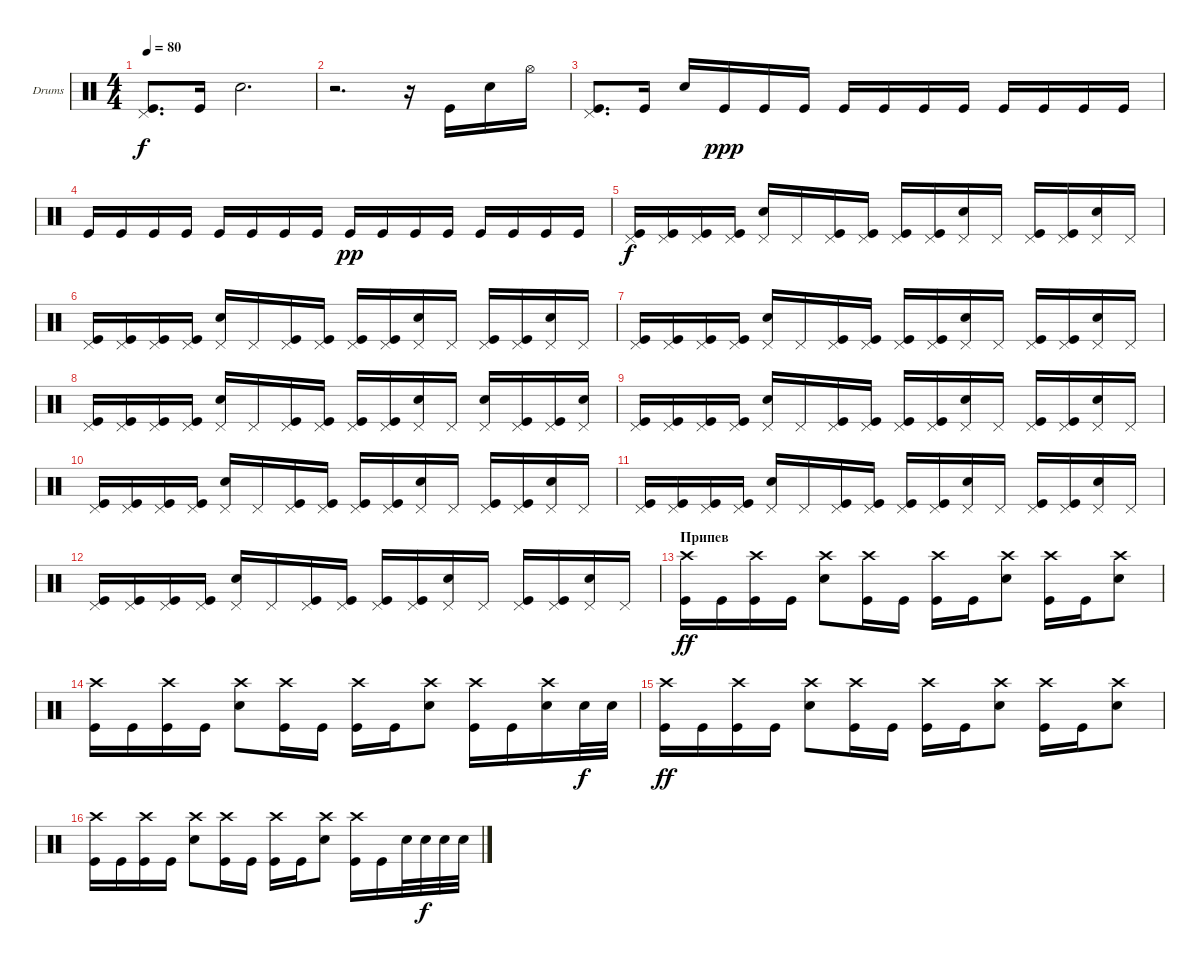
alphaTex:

\defaultSystemsLayout 4
\bracketExtendMode groupsimilarinstruments
\firstSystemTrackNameOrientation horizontal
\otherSystemsTrackNameOrientation horizontal
\track ("Drumkit" "Drums") {mute instrument percussion}
\staff {score}
\articulation defaults
\ts (4 4)
\tempo 80
\clef neutral
\ks c
("Pedal Hi-Hat (hit)" "Kick (hit)").8{d dy f} "Kick (hit)".16 "Snare (hit) 2".2{d} |
r.2{d} r.16 "Kick (hit)".16 "Snare (hit) 2".16 "Hi-Hat (open)".16 |
("Pedal Hi-Hat (hit)" "Kick (hit)").8{d} "Kick (hit)".16 "Snare (hit) 2".16 "Kick (hit)".16{dy ppp} "Kick (hit)".16 "Kick (hit)".16 "Kick (hit)".16 "Kick (hit)".16 "Kick (hit)".16 "Kick (hit)".16 "Kick (hit)".16 "Kick (hit)".16 "Kick (hit)".16 "Kick (hit)".16 |
"Kick (hit)".16 "Kick (hit)".16 "Kick (hit)".16 "Kick (hit)".16 "Kick (hit)".16 "Kick (hit)".16 "Kick (hit)".16 "Kick (hit)".16 "Kick (hit)".16{dy pp} "Kick (hit)".16 "Kick (hit)".16 "Kick (hit)".16 "Kick (hit)".16 "Kick (hit)".16 "Kick (hit)".16 "Kick (hit)".16 |
("Pedal Hi-Hat (hit)" "Kick (hit)").16{dy f} ("Pedal Hi-Hat (hit)" "Kick (hit)").16 ("Pedal Hi-Hat (hit)" "Kick (hit)").16 ("Pedal Hi-Hat (hit)" "Kick (hit)").16 ("Pedal Hi-Hat (hit)" "Snare (hit) 2").16 "Pedal Hi-Hat (hit)".16 ("Pedal Hi-Hat (hit)" "Kick (hit)").16 ("Pedal Hi-Hat (hit)" "Kick (hit)").16 ("Pedal Hi-Hat (hit)" "Kick (hit)").16 ("Pedal Hi-Hat (hit)" "Kick (hit)").16 ("Pedal Hi-Hat (hit)" "Snare (hit) 2").16 "Pedal Hi-Hat (hit)".16 ("Pedal Hi-Hat (hit)" "Kick (hit)").16 ("Pedal Hi-Hat (hit)" "Kick (hit)").16 ("Pedal Hi-Hat (hit)" "Snare (hit) 2").16 "Pedal Hi-Hat (hit)".16 |
("Pedal Hi-Hat (hit)" "Kick (hit)").16 ("Pedal Hi-Hat (hit)" "Kick (hit)").16 ("Pedal Hi-Hat (hit)" "Kick (hit)").16 ("Pedal Hi-Hat (hit)" "Kick (hit)").16 ("Pedal Hi-Hat (hit)" "Snare (hit) 2").16 "Pedal Hi-Hat (hit)".16 ("Pedal Hi-Hat (hit)" "Kick (hit)").16 ("Pedal Hi-Hat (hit)" "Kick (hit)").16 ("Pedal Hi-Hat (hit)" "Kick (hit)").16 ("Pedal Hi-Hat (hit)" "Kick (hit)").16 ("Pedal Hi-Hat (hit)" "Snare (hit) 2").16 "Pedal Hi-Hat (hit)".16 ("Pedal Hi-Hat (hit)" "Kick (hit)").16 ("Pedal Hi-Hat (hit)" "Kick (hit)").16 ("Pedal Hi-Hat (hit)" "Snare (hit) 2").16 "Pedal Hi-Hat (hit)".16 |
("Pedal Hi-Hat (hit)" "Kick (hit)").16 ("Pedal Hi-Hat (hit)" "Kick (hit)").16 ("Pedal Hi-Hat (hit)" "Kick (hit)").16 ("Pedal Hi-Hat (hit)" "Kick (hit)").16 ("Pedal Hi-Hat (hit)" "Snare (hit) 2").16 "Pedal Hi-Hat (hit)".16 ("Pedal Hi-Hat (hit)" "Kick (hit)").16 ("Pedal Hi-Hat (hit)" "Kick (hit)").16 ("Pedal Hi-Hat (hit)" "Kick (hit)").16 ("Pedal Hi-Hat (hit)" "Kick (hit)").16 ("Pedal Hi-Hat (hit)" "Snare (hit) 2").16 "Pedal Hi-Hat (hit)".16 ("Pedal Hi-Hat (hit)" "Kick (hit)").16 ("Pedal Hi-Hat (hit)" "Kick (hit)").16 ("Pedal Hi-Hat (hit)" "Snare (hit) 2").16 "Pedal Hi-Hat (hit)".16 |
("Pedal Hi-Hat (hit)" "Kick (hit)").16 ("Pedal Hi-Hat (hit)" "Kick (hit)").16 ("Pedal Hi-Hat (hit)" "Kick (hit)").16 ("Pedal Hi-Hat (hit)" "Kick (hit)").16 ("Pedal Hi-Hat (hit)" "Snare (hit) 2").16 "Pedal Hi-Hat (hit)".16 ("Pedal Hi-Hat (hit)" "Kick (hit)").16 ("Pedal Hi-Hat (hit)" "Kick (hit)").16 ("Pedal Hi-Hat (hit)" "Kick (hit)").16 ("Pedal Hi-Hat (hit)" "Kick (hit)").16 ("Pedal Hi-Hat (hit)" "Snare (hit) 2").16 "Pedal Hi-Hat (hit)".16 ("Pedal Hi-Hat (hit)" "Snare (hit) 2").16 ("Pedal Hi-Hat (hit)" "Kick (hit)").16 ("Pedal Hi-Hat (hit)" "Kick (hit)").16 ("Pedal Hi-Hat (hit)" "Snare (hit) 2").16 |
("Pedal Hi-Hat (hit)" "Kick (hit)").16 ("Pedal Hi-Hat (hit)" "Kick (hit)").16 ("Pedal Hi-Hat (hit)" "Kick (hit)").16 ("Pedal Hi-Hat (hit)" "Kick (hit)").16 ("Pedal Hi-Hat (hit)" "Snare (hit) 2").16 "Pedal Hi-Hat (hit)".16 ("Pedal Hi-Hat (hit)" "Kick (hit)").16 ("Pedal Hi-Hat (hit)" "Kick (hit)").16 ("Pedal Hi-Hat (hit)" "Kick (hit)").16 ("Pedal Hi-Hat (hit)" "Kick (hit)").16 ("Pedal Hi-Hat (hit)" "Snare (hit) 2").16 "Pedal Hi-Hat (hit)".16 ("Pedal Hi-Hat (hit)" "Kick (hit)").16 ("Pedal Hi-Hat (hit)" "Kick (hit)").16 ("Pedal Hi-Hat (hit)" "Snare (hit) 2").16 "Pedal Hi-Hat (hit)".16 |
("Pedal Hi-Hat (hit)" "Kick (hit)").16 ("Pedal Hi-Hat (hit)" "Kick (hit)").16 ("Pedal Hi-Hat (hit)" "Kick (hit)").16 ("Pedal Hi-Hat (hit)" "Kick (hit)").16 ("Pedal Hi-Hat (hit)" "Snare (hit) 2").16 "Pedal Hi-Hat (hit)".16 ("Pedal Hi-Hat (hit)" "Kick (hit)").16 ("Pedal Hi-Hat (hit)" "Kick (hit)").16 ("Pedal Hi-Hat (hit)" "Kick (hit)").16 ("Pedal Hi-Hat (hit)" "Kick (hit)").16 ("Pedal Hi-Hat (hit)" "Snare (hit) 2").16 "Pedal Hi-Hat (hit)".16 ("Pedal Hi-Hat (hit)" "Kick (hit)").16 ("Pedal Hi-Hat (hit)" "Kick (hit)").16 ("Pedal Hi-Hat (hit)" "Snare (hit) 2").16 "Pedal Hi-Hat (hit)".16 |
("Pedal Hi-Hat (hit)" "Kick (hit)").16 ("Pedal Hi-Hat (hit)" "Kick (hit)").16 ("Pedal Hi-Hat (hit)" "Kick (hit)").16 ("Pedal Hi-Hat (hit)" "Kick (hit)").16 ("Pedal Hi-Hat (hit)" "Snare (hit) 2").16 "Pedal Hi-Hat (hit)".16 ("Pedal Hi-Hat (hit)" "Kick (hit)").16 ("Pedal Hi-Hat (hit)" "Kick (hit)").16 ("Pedal Hi-Hat (hit)" "Kick (hit)").16 ("Pedal Hi-Hat (hit)" "Kick (hit)").16 ("Pedal Hi-Hat (hit)" "Snare (hit) 2").16 "Pedal Hi-Hat (hit)".16 ("Pedal Hi-Hat (hit)" "Kick (hit)").16 ("Pedal Hi-Hat (hit)" "Kick (hit)").16 ("Pedal Hi-Hat (hit)" "Snare (hit) 2").16 "Pedal Hi-Hat (hit)".16 |
("Pedal Hi-Hat (hit)" "Kick (hit)").16 ("Pedal Hi-Hat (hit)" "Kick (hit)").16 ("Pedal Hi-Hat (hit)" "Kick (hit)").16 ("Pedal Hi-Hat (hit)" "Kick (hit)").16 ("Pedal Hi-Hat (hit)" "Snare (hit) 2").16 "Pedal Hi-Hat (hit)".16 ("Pedal Hi-Hat (hit)" "Kick (hit)").16 ("Pedal Hi-Hat (hit)" "Kick (hit)").16 ("Pedal Hi-Hat (hit)" "Kick (hit)").16 ("Pedal Hi-Hat (hit)" "Kick (hit)").16 ("Pedal Hi-Hat (hit)" "Snare (hit) 2").16 "Pedal Hi-Hat (hit)".16 ("Pedal Hi-Hat (hit)" "Kick (hit)").16 ("Pedal Hi-Hat (hit)" "Kick (hit)").16 ("Pedal Hi-Hat (hit)" "Snare (hit) 2").16 "Pedal Hi-Hat (hit)".16 |
\section ("" "Припев")
("Crash high (hit)" "Kick (hit)").16{dy ff} "Kick (hit)".16 ("Crash high (hit)" "Kick (hit)").16 "Kick (hit)".16 ("Crash high (hit)" "Snare (hit) 2").8 ("Crash high (hit)" "Kick (hit)").16 "Kick (hit)".16 ("Crash high (hit)" "Kick (hit)").16 "Kick (hit)".16 ("Crash high (hit)" "Snare (hit) 2").8 ("Crash high (hit)" "Kick (hit)").16 "Kick (hit)".16 ("Crash high (hit)" "Snare (hit) 2").8 |
("Crash high (hit)" "Kick (hit)").16 "Kick (hit)".16 ("Crash high (hit)" "Kick (hit)").16 "Kick (hit)".16 ("Crash high (hit)" "Snare (hit) 2").8 ("Crash high (hit)" "Kick (hit)").16 "Kick (hit)".16 ("Crash high (hit)" "Kick (hit)").16 "Kick (hit)".16 ("Crash high (hit)" "Snare (hit) 2").8 ("Crash high (hit)" "Kick (hit)").16 "Kick (hit)".16 ("Crash high (hit)" "Snare (hit) 2").16 "Snare (hit) 2".32{dy f} "Snare (hit) 2".32 |
("Crash high (hit)" "Kick (hit)").16{dy ff} "Kick (hit)".16 ("Crash high (hit)" "Kick (hit)").16 "Kick (hit)".16 ("Crash high (hit)" "Snare (hit) 2").8 ("Crash high (hit)" "Kick (hit)").16 "Kick (hit)".16 ("Crash high (hit)" "Kick (hit)").16 "Kick (hit)".16 ("Crash high (hit)" "Snare (hit) 2").8 ("Crash high (hit)" "Kick (hit)").16 "Kick (hit)".16 ("Crash high (hit)" "Snare (hit) 2").8 |
("Crash high (hit)" "Kick (hit)").16 "Kick (hit)".16 ("Crash high (hit)" "Kick (hit)").16 "Kick (hit)".16 ("Crash high (hit)" "Snare (hit) 2").8 ("Crash high (hit)" "Kick (hit)").16 "Kick (hit)".16 ("Crash high (hit)" "Kick (hit)").16 "Kick (hit)".16 ("Crash high (hit)" "Snare (hit) 2").8 ("Crash high (hit)" "Kick (hit)").16 "Kick (hit)".16 "Snare (hit) 2".32 "Snare (hit) 2".32{dy f} "Snare (hit) 2".32 "Snare (hit) 2".32
